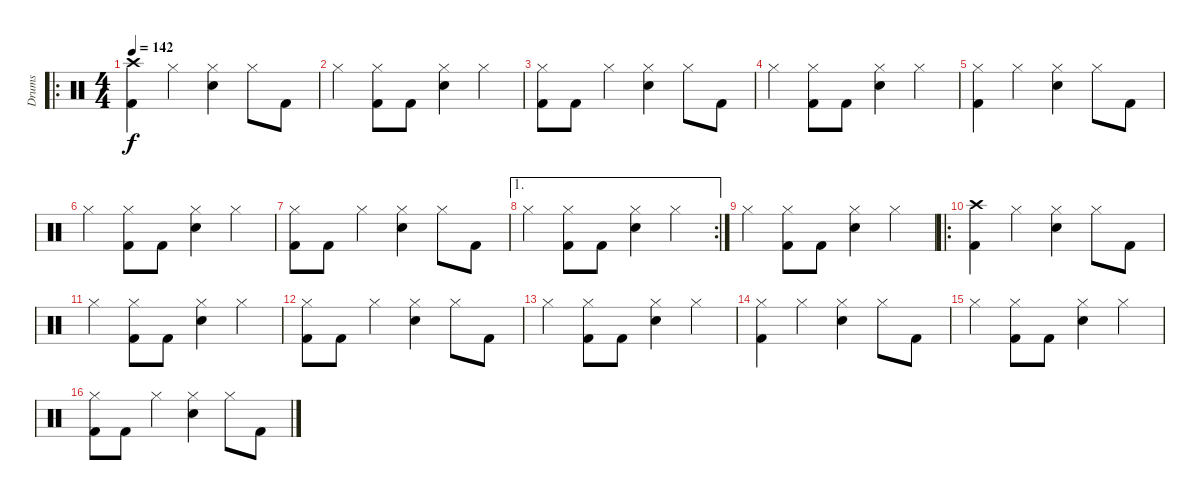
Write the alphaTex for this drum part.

\track ("Drums" "Drums") {instrument percussion}
\staff {score}
\articulation defaults
\ro
\ts (4 4)
\tempo 142
\clef neutral
\ks c
("Crash high (hit)" "Kick (hit) 2").4{dy f} "Hi-Hat (closed)".4 ("Hi-Hat (closed)" "Electric Snare (hit)").4 "Hi-Hat (closed)".8 "Kick (hit) 2".8 |
"Hi-Hat (closed)".4 ("Hi-Hat (closed)" "Kick (hit) 2").8 "Kick (hit) 2".8 ("Hi-Hat (closed)" "Electric Snare (hit)").4 "Hi-Hat (closed)".4 |
("Hi-Hat (closed)" "Kick (hit) 2").8 "Kick (hit) 2".8 "Hi-Hat (closed)".4 ("Hi-Hat (closed)" "Electric Snare (hit)").4 "Hi-Hat (closed)".8 "Kick (hit) 2".8 |
"Hi-Hat (closed)".4 ("Hi-Hat (closed)" "Kick (hit) 2").8 "Kick (hit) 2".8 ("Hi-Hat (closed)" "Electric Snare (hit)").4 "Hi-Hat (closed)".4 |
("Hi-Hat (closed)" "Kick (hit) 2").4 "Hi-Hat (closed)".4 ("Hi-Hat (closed)" "Electric Snare (hit)").4 "Hi-Hat (closed)".8 "Kick (hit) 2".8 |
"Hi-Hat (closed)".4 ("Hi-Hat (closed)" "Kick (hit) 2").8 "Kick (hit) 2".8 ("Hi-Hat (closed)" "Electric Snare (hit)").4 "Hi-Hat (closed)".4 |
("Hi-Hat (closed)" "Kick (hit) 2").8 "Kick (hit) 2".8 "Hi-Hat (closed)".4 ("Hi-Hat (closed)" "Electric Snare (hit)").4 "Hi-Hat (closed)".8 "Kick (hit) 2".8 |
\ae 1
\rc 2 "Hi-Hat (closed)".4
("Hi-Hat (closed)" "Kick (hit) 2").8 "Kick (hit) 2".8 ("Hi-Hat (closed)" "Electric Snare (hit)").4 "Hi-Hat (closed)".4 |
"Hi-Hat (closed)".4 ("Hi-Hat (closed)" "Kick (hit) 2").8 "Kick (hit) 2".8 ("Hi-Hat (closed)" "Electric Snare (hit)").4 "Hi-Hat (closed)".4 |
\ro
("Crash high (hit)" "Kick (hit) 2").4 "Hi-Hat (closed)".4 ("Hi-Hat (closed)" "Electric Snare (hit)").4 "Hi-Hat (closed)".8 "Kick (hit) 2".8 |
"Hi-Hat (closed)".4 ("Hi-Hat (closed)" "Kick (hit) 2").8 "Kick (hit) 2".8 ("Hi-Hat (closed)" "Electric Snare (hit)").4 "Hi-Hat (closed)".4 |
("Hi-Hat (closed)" "Kick (hit) 2").8 "Kick (hit) 2".8 "Hi-Hat (closed)".4 ("Hi-Hat (closed)" "Electric Snare (hit)").4 "Hi-Hat (closed)".8 "Kick (hit) 2".8 |
"Hi-Hat (closed)".4 ("Hi-Hat (closed)" "Kick (hit) 2").8 "Kick (hit) 2".8 ("Hi-Hat (closed)" "Electric Snare (hit)").4 "Hi-Hat (closed)".4 |
("Hi-Hat (closed)" "Kick (hit) 2").4 "Hi-Hat (closed)".4 ("Hi-Hat (closed)" "Electric Snare (hit)").4 "Hi-Hat (closed)".8 "Kick (hit) 2".8 |
"Hi-Hat (closed)".4 ("Hi-Hat (closed)" "Kick (hit) 2").8 "Kick (hit) 2".8 ("Hi-Hat (closed)" "Electric Snare (hit)").4 "Hi-Hat (closed)".4 |
("Hi-Hat (closed)" "Kick (hit) 2").8 "Kick (hit) 2".8 "Hi-Hat (closed)".4 ("Hi-Hat (closed)" "Electric Snare (hit)").4 "Hi-Hat (closed)".8 "Kick (hit) 2".8
